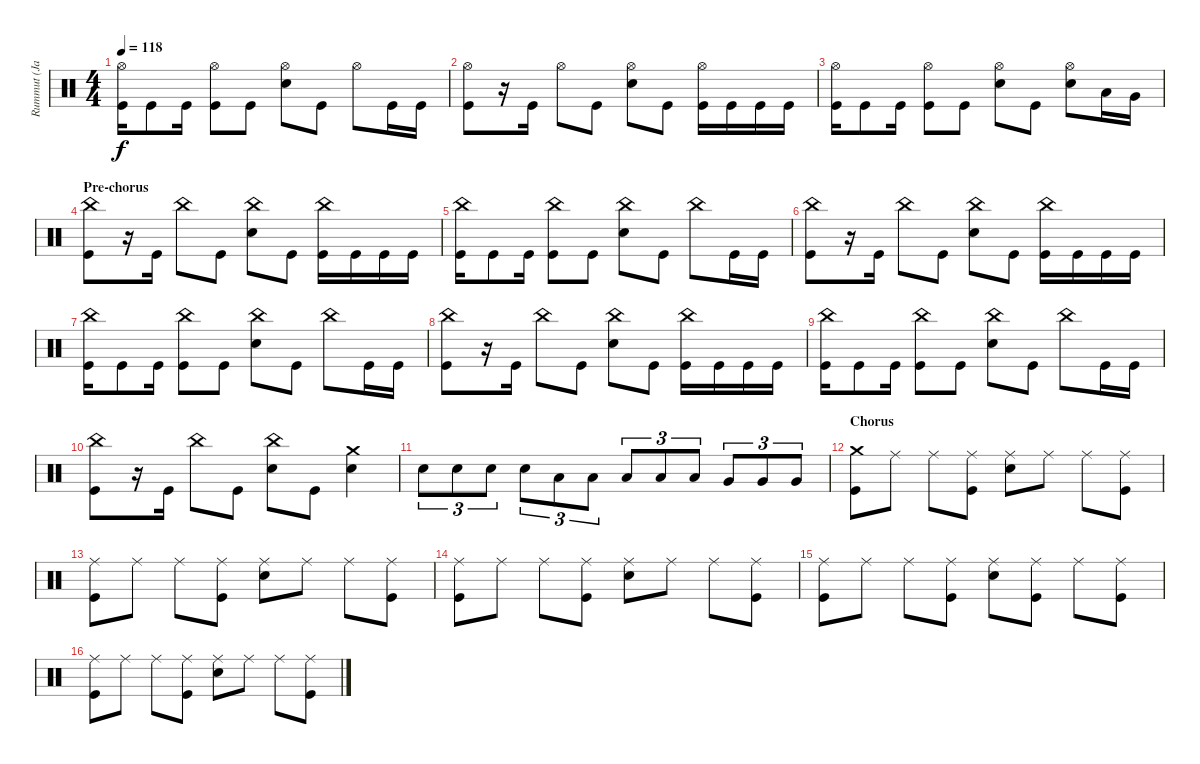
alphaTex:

\track ("Rummut (Janne)" "Rummut (Ja") {instrument percussion}
\staff {score}
\articulation defaults
\ts (4 4)
\tempo 118
\clef neutral
\ks c
("Hi-Hat (open)" "Kick (hit)").16{dy f} "Kick (hit)".8 "Kick (hit)".16 ("Hi-Hat (open)" "Kick (hit)").8 "Kick (hit)".8 ("Hi-Hat (open)" "Snare (hit) 2").8 "Kick (hit)".8 "Hi-Hat (open)".8 "Kick (hit)".16 "Kick (hit)".16 |
("Hi-Hat (open)" "Kick (hit)").8 r.16 "Kick (hit)".16 "Hi-Hat (open)".8 "Kick (hit)".8 ("Hi-Hat (open)" "Snare (hit) 2").8 "Kick (hit)".8 ("Hi-Hat (open)" "Kick (hit)").16 "Kick (hit)".16 "Kick (hit)".16 "Kick (hit)".16 |
("Hi-Hat (open)" "Kick (hit)").16 "Kick (hit)".8 "Kick (hit)".16 ("Hi-Hat (open)" "Kick (hit)").8 "Kick (hit)".8 ("Hi-Hat (open)" "Snare (hit) 2").8 "Kick (hit)".8 ("Hi-Hat (open)" "Snare (hit) 2").8 "Low Tom (hit)".16 "Very Low Tom (hit)".16 |
\section ("" "Pre-chorus")
("China (hit)" "Kick (hit)").8 r.16 "Kick (hit)".16 "China (hit)".8 "Kick (hit)".8 ("China (hit)" "Snare (hit) 2").8 "Kick (hit)".8 ("China (hit)" "Kick (hit)").16 "Kick (hit)".16 "Kick (hit)".16 "Kick (hit)".16 |
("China (hit)" "Kick (hit)").16 "Kick (hit)".8 "Kick (hit)".16 ("China (hit)" "Kick (hit)").8 "Kick (hit)".8 ("China (hit)" "Snare (hit) 2").8 "Kick (hit)".8 "China (hit)".8 "Kick (hit)".16 "Kick (hit)".16 |
("China (hit)" "Kick (hit)").8 r.16 "Kick (hit)".16 "China (hit)".8 "Kick (hit)".8 ("China (hit)" "Snare (hit) 2").8 "Kick (hit)".8 ("China (hit)" "Kick (hit)").16 "Kick (hit)".16 "Kick (hit)".16 "Kick (hit)".16 |
("China (hit)" "Kick (hit)").16 "Kick (hit)".8 "Kick (hit)".16 ("China (hit)" "Kick (hit)").8 "Kick (hit)".8 ("China (hit)" "Snare (hit) 2").8 "Kick (hit)".8 "China (hit)".8 "Kick (hit)".16 "Kick (hit)".16 |
("China (hit)" "Kick (hit)").8 r.16 "Kick (hit)".16 "China (hit)".8 "Kick (hit)".8 ("China (hit)" "Snare (hit) 2").8 "Kick (hit)".8 ("China (hit)" "Kick (hit)").16 "Kick (hit)".16 "Kick (hit)".16 "Kick (hit)".16 |
("China (hit)" "Kick (hit)").16 "Kick (hit)".8 "Kick (hit)".16 ("China (hit)" "Kick (hit)").8 "Kick (hit)".8 ("China (hit)" "Snare (hit) 2").8 "Kick (hit)".8 "China (hit)".8 "Kick (hit)".16 "Kick (hit)".16 |
("China (hit)" "Kick (hit)").8 r.16 "Kick (hit)".16 "China (hit)".8 "Kick (hit)".8 ("China (hit)" "Snare (hit) 2").8 "Kick (hit)".8 ("Crash medium (hit)" "Snare (hit) 2").4 |
"Snare (hit) 2".8{tu (3 2)} "Snare (hit) 2".8{tu (3 2)} "Snare (hit) 2".8{tu (3 2)} "Snare (hit) 2".8{tu (3 2)} "Low Tom (hit)".8{tu (3 2)} "Low Tom (hit)".8{tu (3 2)} "Low Tom (hit)".8{tu (3 2)} "Low Tom (hit)".8{tu (3 2)} "Low Tom (hit)".8{tu (3 2)} "Very Low Tom (hit)".8{tu (3 2)} "Very Low Tom (hit)".8{tu (3 2)} "Very Low Tom (hit)".8{tu (3 2)} |
\section ("" "Chorus")
("Crash medium (hit)" "Kick (hit)").8 "Ride (middle)".8 "Ride (middle)".8 ("Ride (middle)" "Kick (hit)").8 ("Ride (middle)" "Snare (hit) 2").8 "Ride (middle)".8 "Ride (middle)".8 ("Ride (middle)" "Kick (hit)").8 |
("Ride (middle)" "Kick (hit)").8 "Ride (middle)".8 "Ride (middle)".8 ("Ride (middle)" "Kick (hit)").8 ("Ride (middle)" "Snare (hit) 2").8 "Ride (middle)".8 "Ride (middle)".8 ("Ride (middle)" "Kick (hit)").8 |
("Ride (middle)" "Kick (hit)").8 "Ride (middle)".8 "Ride (middle)".8 ("Ride (middle)" "Kick (hit)").8 ("Ride (middle)" "Snare (hit) 2").8 "Ride (middle)".8 "Ride (middle)".8 ("Ride (middle)" "Kick (hit)").8 |
("Ride (middle)" "Kick (hit)").8 "Ride (middle)".8 "Ride (middle)".8 ("Ride (middle)" "Kick (hit)").8 ("Ride (middle)" "Snare (hit) 2").8 ("Ride (middle)" "Kick (hit)").8 "Ride (middle)".8 ("Ride (middle)" "Kick (hit)").8 |
("Ride (middle)" "Kick (hit)").8 "Ride (middle)".8 "Ride (middle)".8 ("Ride (middle)" "Kick (hit)").8 ("Ride (middle)" "Snare (hit) 2").8 "Ride (middle)".8 "Ride (middle)".8 ("Ride (middle)" "Kick (hit)").8
